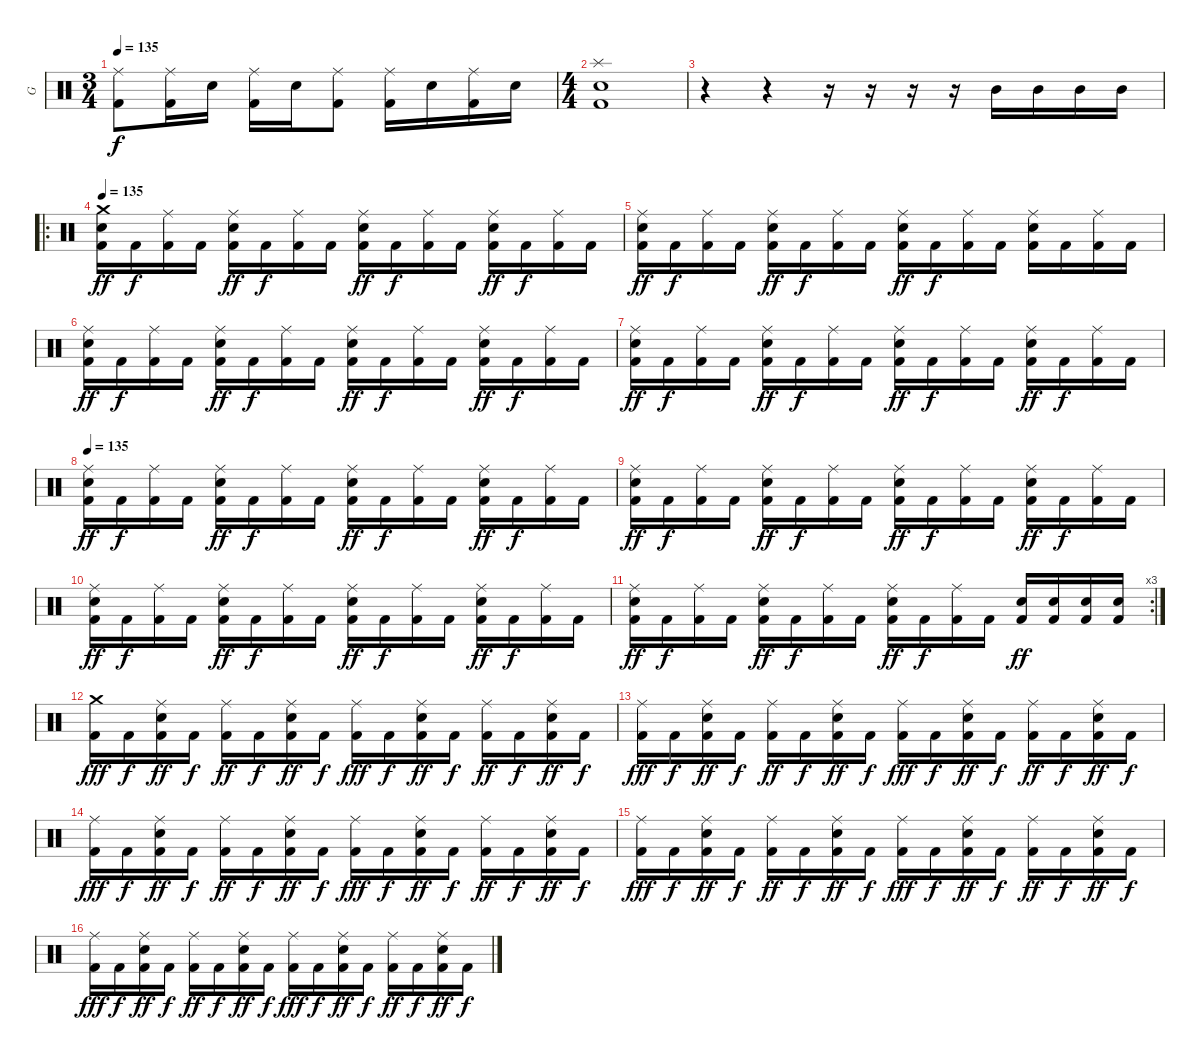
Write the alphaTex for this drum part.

\track ("G" "G") {instrument percussion}
\staff {score}
\articulation defaults
\ts (3 4)
\tempo 135
\clef neutral
\ks c
("Ride (middle)" "Kick (hit) 2").8{dy f} ("Ride (middle)" "Kick (hit) 2").16 "Electric Snare (hit)".16 ("Ride (middle)" "Kick (hit) 2").16 "Electric Snare (hit)".16 ("Ride (middle)" "Kick (hit) 2").8 ("Ride (middle)" "Kick (hit) 2").16 "Electric Snare (hit)".16 ("Ride (middle)" "Kick (hit) 2").16 "Electric Snare (hit)".16 |
\ts (4 4)
("Splash (hit)" "Electric Snare (hit)" "Kick (hit) 2").1 |
r.4 r.4 r.16 r.16 r.16 r.16 "Mid Tom (hit)".16 "Mid Tom (hit)".16 "Mid Tom (hit)".16 "Mid Tom (hit)".16 |
\ro
\tempo 135
("Crash medium (hit)" "Electric Snare (hit)" "Kick (hit) 2").16{dy ff} "Kick (hit) 2".16{dy f} ("Ride (middle)" "Kick (hit) 2").16 "Kick (hit) 2".16 ("Ride (middle)" "Electric Snare (hit)" "Kick (hit) 2").16{dy ff} "Kick (hit) 2".16{dy f} ("Ride (middle)" "Kick (hit) 2").16 "Kick (hit) 2".16 ("Ride (middle)" "Electric Snare (hit)" "Kick (hit) 2").16{dy ff} "Kick (hit) 2".16{dy f} ("Ride (middle)" "Kick (hit) 2").16 "Kick (hit) 2".16 ("Ride (middle)" "Electric Snare (hit)" "Kick (hit) 2").16{dy ff} "Kick (hit) 2".16{dy f} ("Ride (middle)" "Kick (hit) 2").16 "Kick (hit) 2".16 |
("Ride (middle)" "Electric Snare (hit)" "Kick (hit) 2").16{dy ff} "Kick (hit) 2".16{dy f} ("Ride (middle)" "Kick (hit) 2").16 "Kick (hit) 2".16 ("Ride (middle)" "Electric Snare (hit)" "Kick (hit) 2").16{dy ff} "Kick (hit) 2".16{dy f} ("Ride (middle)" "Kick (hit) 2").16 "Kick (hit) 2".16 ("Ride (middle)" "Electric Snare (hit)" "Kick (hit) 2").16{dy ff} "Kick (hit) 2".16{dy f} ("Ride (middle)" "Kick (hit) 2").16 "Kick (hit) 2".16 ("Ride (middle)" "Electric Snare (hit)" "Kick (hit) 2").16 "Kick (hit) 2".16 ("Ride (middle)" "Kick (hit) 2").16 "Kick (hit) 2".16 |
("Ride (middle)" "Electric Snare (hit)" "Kick (hit) 2").16{dy ff} "Kick (hit) 2".16{dy f} ("Ride (middle)" "Kick (hit) 2").16 "Kick (hit) 2".16 ("Ride (middle)" "Electric Snare (hit)" "Kick (hit) 2").16{dy ff} "Kick (hit) 2".16{dy f} ("Ride (middle)" "Kick (hit) 2").16 "Kick (hit) 2".16 ("Ride (middle)" "Electric Snare (hit)" "Kick (hit) 2").16{dy ff} "Kick (hit) 2".16{dy f} ("Ride (middle)" "Kick (hit) 2").16 "Kick (hit) 2".16 ("Ride (middle)" "Electric Snare (hit)" "Kick (hit) 2").16{dy ff} "Kick (hit) 2".16{dy f} ("Ride (middle)" "Kick (hit) 2").16 "Kick (hit) 2".16 |
("Ride (middle)" "Electric Snare (hit)" "Kick (hit) 2").16{dy ff} "Kick (hit) 2".16{dy f} ("Ride (middle)" "Kick (hit) 2").16 "Kick (hit) 2".16 ("Ride (middle)" "Electric Snare (hit)" "Kick (hit) 2").16{dy ff} "Kick (hit) 2".16{dy f} ("Ride (middle)" "Kick (hit) 2").16 "Kick (hit) 2".16 ("Ride (middle)" "Electric Snare (hit)" "Kick (hit) 2").16{dy ff} "Kick (hit) 2".16{dy f} ("Ride (middle)" "Kick (hit) 2").16 "Kick (hit) 2".16 ("Ride (middle)" "Electric Snare (hit)" "Kick (hit) 2").16{dy ff} "Kick (hit) 2".16{dy f} ("Ride (middle)" "Kick (hit) 2").16 "Kick (hit) 2".16 |
\tempo 135
("Ride (middle)" "Electric Snare (hit)" "Kick (hit) 2").16{dy ff} "Kick (hit) 2".16{dy f} ("Ride (middle)" "Kick (hit) 2").16 "Kick (hit) 2".16 ("Ride (middle)" "Electric Snare (hit)" "Kick (hit) 2").16{dy ff} "Kick (hit) 2".16{dy f} ("Ride (middle)" "Kick (hit) 2").16 "Kick (hit) 2".16 ("Ride (middle)" "Electric Snare (hit)" "Kick (hit) 2").16{dy ff} "Kick (hit) 2".16{dy f} ("Ride (middle)" "Kick (hit) 2").16 "Kick (hit) 2".16 ("Ride (middle)" "Electric Snare (hit)" "Kick (hit) 2").16{dy ff} "Kick (hit) 2".16{dy f} ("Ride (middle)" "Kick (hit) 2").16 "Kick (hit) 2".16 |
("Ride (middle)" "Electric Snare (hit)" "Kick (hit) 2").16{dy ff} "Kick (hit) 2".16{dy f} ("Ride (middle)" "Kick (hit) 2").16 "Kick (hit) 2".16 ("Ride (middle)" "Electric Snare (hit)" "Kick (hit) 2").16{dy ff} "Kick (hit) 2".16{dy f} ("Ride (middle)" "Kick (hit) 2").16 "Kick (hit) 2".16 ("Ride (middle)" "Electric Snare (hit)" "Kick (hit) 2").16{dy ff} "Kick (hit) 2".16{dy f} ("Ride (middle)" "Kick (hit) 2").16 "Kick (hit) 2".16 ("Ride (middle)" "Electric Snare (hit)" "Kick (hit) 2").16{dy ff} "Kick (hit) 2".16{dy f} ("Ride (middle)" "Kick (hit) 2").16 "Kick (hit) 2".16 |
("Ride (middle)" "Electric Snare (hit)" "Kick (hit) 2").16{dy ff} "Kick (hit) 2".16{dy f} ("Ride (middle)" "Kick (hit) 2").16 "Kick (hit) 2".16 ("Ride (middle)" "Electric Snare (hit)" "Kick (hit) 2").16{dy ff} "Kick (hit) 2".16{dy f} ("Ride (middle)" "Kick (hit) 2").16 "Kick (hit) 2".16 ("Ride (middle)" "Electric Snare (hit)" "Kick (hit) 2").16{dy ff} "Kick (hit) 2".16{dy f} ("Ride (middle)" "Kick (hit) 2").16 "Kick (hit) 2".16 ("Ride (middle)" "Electric Snare (hit)" "Kick (hit) 2").16{dy ff} "Kick (hit) 2".16{dy f} ("Ride (middle)" "Kick (hit) 2").16 "Kick (hit) 2".16 |
\rc 3
("Ride (middle)" "Electric Snare (hit)" "Kick (hit) 2").16{dy ff} "Kick (hit) 2".16{dy f} ("Ride (middle)" "Kick (hit) 2").16 "Kick (hit) 2".16 ("Ride (middle)" "Electric Snare (hit)" "Kick (hit) 2").16{dy ff} "Kick (hit) 2".16{dy f} ("Ride (middle)" "Kick (hit) 2").16 "Kick (hit) 2".16 ("Ride (middle)" "Electric Snare (hit)" "Kick (hit) 2").16{dy ff} "Kick (hit) 2".16{dy f} ("Ride (middle)" "Kick (hit) 2").16 "Kick (hit) 2".16 ("Electric Snare (hit)" "Kick (hit) 2").16{dy ff} ("Electric Snare (hit)" "Kick (hit) 2").16 ("Electric Snare (hit)" "Kick (hit) 2").16 ("Electric Snare (hit)" "Kick (hit) 2").16 |
("Crash medium (hit)" "Kick (hit) 2").16{dy fff} "Kick (hit) 2".16{dy f} ("Ride (middle)" "Electric Snare (hit)" "Kick (hit) 2").16{dy ff} "Kick (hit) 2".16{dy f} ("Ride (middle)" "Kick (hit) 2").16{dy ff} "Kick (hit) 2".16{dy f} ("Ride (middle)" "Electric Snare (hit)" "Kick (hit) 2").16{dy ff} "Kick (hit) 2".16{dy f} ("Ride (middle)" "Kick (hit) 2").16{dy fff} "Kick (hit) 2".16{dy f} ("Ride (middle)" "Electric Snare (hit)" "Kick (hit) 2").16{dy ff} "Kick (hit) 2".16{dy f} ("Ride (middle)" "Kick (hit) 2").16{dy ff} "Kick (hit) 2".16{dy f} ("Ride (middle)" "Electric Snare (hit)" "Kick (hit) 2").16{dy ff} "Kick (hit) 2".16{dy f} |
("Ride (middle)" "Kick (hit) 2").16{dy fff} "Kick (hit) 2".16{dy f} ("Ride (middle)" "Electric Snare (hit)" "Kick (hit) 2").16{dy ff} "Kick (hit) 2".16{dy f} ("Ride (middle)" "Kick (hit) 2").16{dy ff} "Kick (hit) 2".16{dy f} ("Ride (middle)" "Electric Snare (hit)" "Kick (hit) 2").16{dy ff} "Kick (hit) 2".16{dy f} ("Ride (middle)" "Kick (hit) 2").16{dy fff} "Kick (hit) 2".16{dy f} ("Ride (middle)" "Electric Snare (hit)" "Kick (hit) 2").16{dy ff} "Kick (hit) 2".16{dy f} ("Ride (middle)" "Kick (hit) 2").16{dy ff} "Kick (hit) 2".16{dy f} ("Ride (middle)" "Electric Snare (hit)" "Kick (hit) 2").16{dy ff} "Kick (hit) 2".16{dy f} |
("Ride (middle)" "Kick (hit) 2").16{dy fff} "Kick (hit) 2".16{dy f} ("Ride (middle)" "Electric Snare (hit)" "Kick (hit) 2").16{dy ff} "Kick (hit) 2".16{dy f} ("Ride (middle)" "Kick (hit) 2").16{dy ff} "Kick (hit) 2".16{dy f} ("Ride (middle)" "Electric Snare (hit)" "Kick (hit) 2").16{dy ff} "Kick (hit) 2".16{dy f} ("Ride (middle)" "Kick (hit) 2").16{dy fff} "Kick (hit) 2".16{dy f} ("Ride (middle)" "Electric Snare (hit)" "Kick (hit) 2").16{dy ff} "Kick (hit) 2".16{dy f} ("Ride (middle)" "Kick (hit) 2").16{dy ff} "Kick (hit) 2".16{dy f} ("Ride (middle)" "Electric Snare (hit)" "Kick (hit) 2").16{dy ff} "Kick (hit) 2".16{dy f} |
("Ride (middle)" "Kick (hit) 2").16{dy fff} "Kick (hit) 2".16{dy f} ("Ride (middle)" "Electric Snare (hit)" "Kick (hit) 2").16{dy ff} "Kick (hit) 2".16{dy f} ("Ride (middle)" "Kick (hit) 2").16{dy ff} "Kick (hit) 2".16{dy f} ("Ride (middle)" "Electric Snare (hit)" "Kick (hit) 2").16{dy ff} "Kick (hit) 2".16{dy f} ("Ride (middle)" "Kick (hit) 2").16{dy fff} "Kick (hit) 2".16{dy f} ("Ride (middle)" "Electric Snare (hit)" "Kick (hit) 2").16{dy ff} "Kick (hit) 2".16{dy f} ("Ride (middle)" "Kick (hit) 2").16{dy ff} "Kick (hit) 2".16{dy f} ("Ride (middle)" "Electric Snare (hit)" "Kick (hit) 2").16{dy ff} "Kick (hit) 2".16{dy f} |
("Ride (middle)" "Kick (hit) 2").16{dy fff} "Kick (hit) 2".16{dy f} ("Ride (middle)" "Electric Snare (hit)" "Kick (hit) 2").16{dy ff} "Kick (hit) 2".16{dy f} ("Ride (middle)" "Kick (hit) 2").16{dy ff} "Kick (hit) 2".16{dy f} ("Ride (middle)" "Electric Snare (hit)" "Kick (hit) 2").16{dy ff} "Kick (hit) 2".16{dy f} ("Ride (middle)" "Kick (hit) 2").16{dy fff} "Kick (hit) 2".16{dy f} ("Ride (middle)" "Electric Snare (hit)" "Kick (hit) 2").16{dy ff} "Kick (hit) 2".16{dy f} ("Ride (middle)" "Kick (hit) 2").16{dy ff} "Kick (hit) 2".16{dy f} ("Ride (middle)" "Electric Snare (hit)" "Kick (hit) 2").16{dy ff} "Kick (hit) 2".16{dy f}
